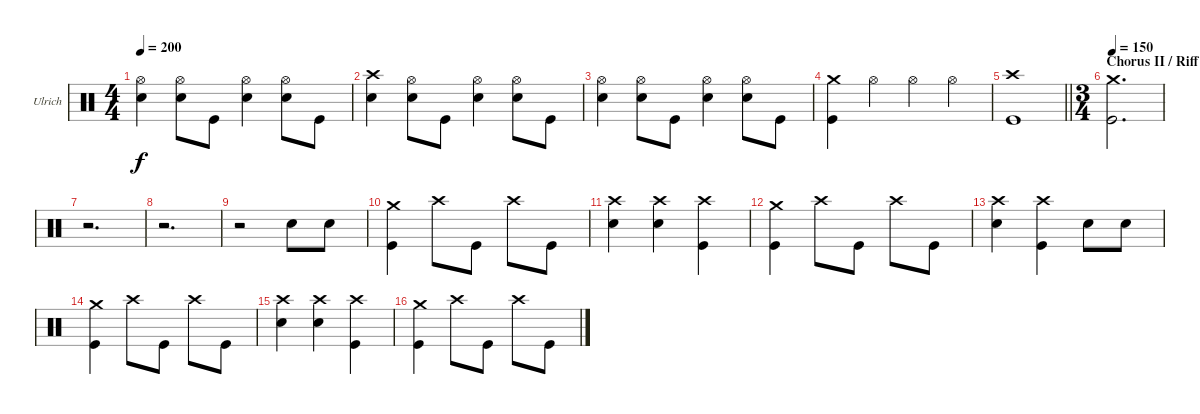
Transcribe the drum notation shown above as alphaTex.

\bracketExtendMode groupsimilarinstruments
\firstSystemTrackNameOrientation horizontal
\otherSystemsTrackNameOrientation horizontal
\track ("Drumkit" "Ulrich") {instrument percussion}
\staff {score}
\articulation defaults
\ts (4 4)
\tempo 200
\clef neutral
\ks c
("Hi-Hat (open)" "Snare (hit) 2").4{dy f} ("Hi-Hat (open)" "Snare (hit) 2").8 "Kick (hit)".8 ("Hi-Hat (open)" "Snare (hit) 2").4 ("Hi-Hat (open)" "Snare (hit) 2").8 "Kick (hit)".8 |
("Crash high (hit)" "Snare (hit) 2").4 ("Hi-Hat (open)" "Snare (hit) 2").8 "Kick (hit)".8 ("Hi-Hat (open)" "Snare (hit) 2").4 ("Hi-Hat (open)" "Snare (hit) 2").8 "Kick (hit)".8 |
("Hi-Hat (open)" "Snare (hit) 2").4 ("Hi-Hat (open)" "Snare (hit) 2").8 "Kick (hit)".8 ("Hi-Hat (open)" "Snare (hit) 2").4 ("Hi-Hat (open)" "Snare (hit) 2").8 "Kick (hit)".8 |
("Crash medium (hit)" "Kick (hit)").4 "Hi-Hat (open)".4 "Hi-Hat (open)".4 "Hi-Hat (open)".4 |
\barLineRight lightlight
("Crash high (hit)" "Kick (hit)").1 |
\ts (3 4)
\beaming (8 2 2 2)
\section ("" "Chorus II / Riff D")
\tempo 150
("Crash medium (hit)" "Kick (hit)").2{d} |
r.2{d} |
r.2{d} |
r.2 "Snare (hit) 2".8 "Snare (hit) 2".8 |
("Crash medium (hit)" "Kick (hit)").4 "Crash high (hit)".8 "Kick (hit)".8 "Crash high (hit)".8 "Kick (hit)".8 |
("Crash high (hit)" "Snare (hit) 2").4 ("Crash high (hit)" "Snare (hit) 2").4 ("Crash high (hit)" "Kick (hit)").4 |
("Crash medium (hit)" "Kick (hit)").4 "Crash high (hit)".8 "Kick (hit)".8 "Crash high (hit)".8 "Kick (hit)".8 |
("Crash high (hit)" "Snare (hit) 2").4 ("Crash high (hit)" "Kick (hit)").4 "Snare (hit) 2".8 "Snare (hit) 2".8 |
("Crash medium (hit)" "Kick (hit)").4 "Crash high (hit)".8 "Kick (hit)".8 "Crash high (hit)".8 "Kick (hit)".8 |
("Crash high (hit)" "Snare (hit) 2").4 ("Crash high (hit)" "Snare (hit) 2").4 ("Crash high (hit)" "Kick (hit)").4 |
("Crash medium (hit)" "Kick (hit)").4 "Crash high (hit)".8 "Kick (hit)".8 "Crash high (hit)".8 "Kick (hit)".8
